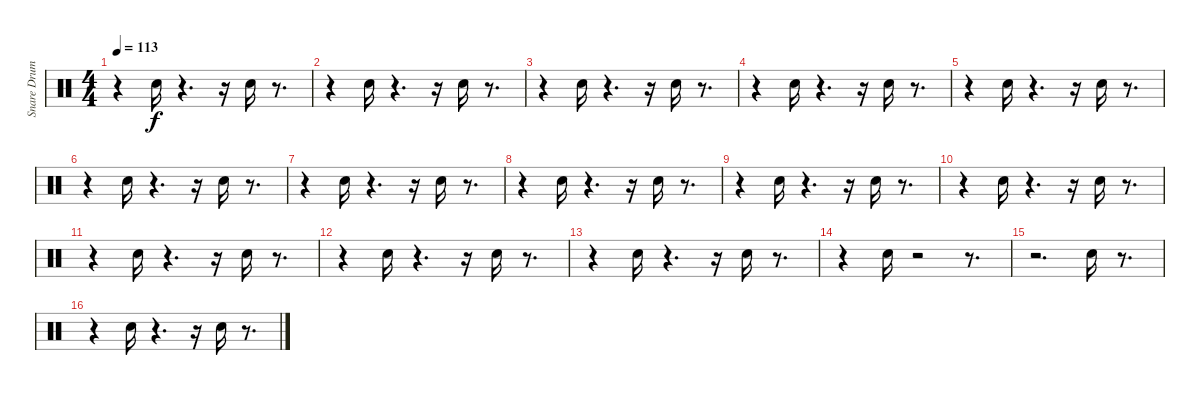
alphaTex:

\track ("Snare Drum" "Snare Drum") {instrument percussion}
\staff {score}
\articulation defaults
\ts (4 4)
\tempo 113
\clef neutral
\ks c
r.4{dy f} "Snare (hit) 2".16 r.4{d} r.16 "Snare (hit) 2".16 r.8{d} |
r.4 "Snare (hit) 2".16 r.4{d} r.16 "Snare (hit) 2".16 r.8{d} |
r.4 "Snare (hit) 2".16 r.4{d} r.16 "Snare (hit) 2".16 r.8{d} |
r.4 "Snare (hit) 2".16 r.4{d} r.16 "Snare (hit) 2".16 r.8{d} |
r.4 "Snare (hit) 2".16 r.4{d} r.16 "Snare (hit) 2".16 r.8{d} |
r.4 "Snare (hit) 2".16 r.4{d} r.16 "Snare (hit) 2".16 r.8{d} |
r.4 "Snare (hit) 2".16 r.4{d} r.16 "Snare (hit) 2".16 r.8{d} |
r.4 "Snare (hit) 2".16 r.4{d} r.16 "Snare (hit) 2".16 r.8{d} |
r.4 "Snare (hit) 2".16 r.4{d} r.16 "Snare (hit) 2".16 r.8{d} |
r.4 "Snare (hit) 2".16 r.4{d} r.16 "Snare (hit) 2".16 r.8{d} |
r.4 "Snare (hit) 2".16 r.4{d} r.16 "Snare (hit) 2".16 r.8{d} |
r.4 "Snare (hit) 2".16 r.4{d} r.16 "Snare (hit) 2".16 r.8{d} |
r.4 "Snare (hit) 2".16 r.4{d} r.16 "Snare (hit) 2".16 r.8{d} |
r.4 "Snare (hit) 2".16 r.2 r.8{d} |
r.2{d} "Snare (hit) 2".16 r.8{d} |
r.4 "Snare (hit) 2".16 r.4{d} r.16 "Snare (hit) 2".16 r.8{d}
